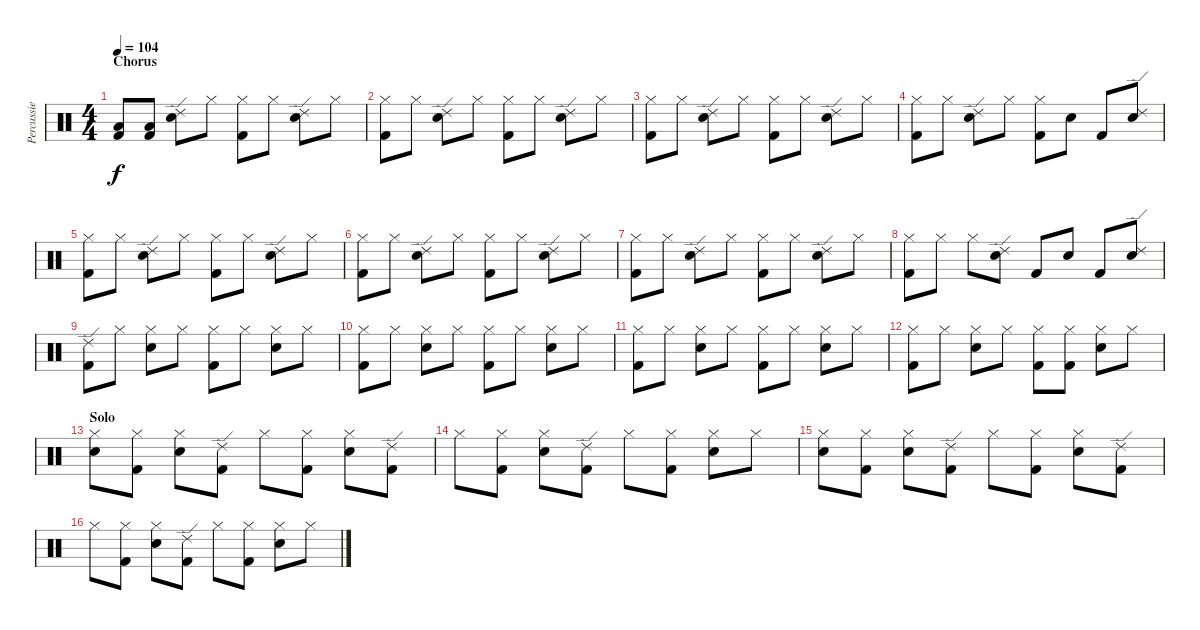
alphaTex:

\track ("Percussie" "Percussie") {instrument percussion}
\staff {score}
\articulation defaults
\ts (4 4)
\section ("" "Chorus")
\tempo 104
\clef neutral
\ks c
("Kick (hit) 2" "Low Floor Tom (hit)").8{dy f} ("Kick (hit) 2" "Low Floor Tom (hit)").8 ("Snare (hit) 2" "Ride (edge) 2").8 "Hi-Hat (closed)".8 ("Hi-Hat (closed)" "Kick (hit) 2").8 "Hi-Hat (closed)".8 ("Snare (hit) 2" "Ride (edge) 2").8 "Hi-Hat (closed)".8 |
("Hi-Hat (closed)" "Kick (hit) 2").8 "Hi-Hat (closed)".8 ("Snare (hit) 2" "Ride (edge) 2").8 "Hi-Hat (closed)".8 ("Hi-Hat (closed)" "Kick (hit) 2").8 "Hi-Hat (closed)".8 ("Snare (hit) 2" "Ride (edge) 2").8 "Hi-Hat (closed)".8 |
("Hi-Hat (closed)" "Kick (hit) 2").8 "Hi-Hat (closed)".8 ("Snare (hit) 2" "Ride (edge) 2").8 "Hi-Hat (closed)".8 ("Hi-Hat (closed)" "Kick (hit) 2").8 "Hi-Hat (closed)".8 ("Snare (hit) 2" "Ride (edge) 2").8 "Hi-Hat (closed)".8 |
("Hi-Hat (closed)" "Kick (hit) 2").8 "Hi-Hat (closed)".8 ("Snare (hit) 2" "Ride (edge) 2").8 "Hi-Hat (closed)".8 ("Hi-Hat (closed)" "Kick (hit) 2").8 "Snare (hit) 2".8 "Kick (hit) 2".8 ("Snare (hit) 2" "Ride (edge) 2").8 |
("Hi-Hat (closed)" "Kick (hit) 2").8 "Hi-Hat (closed)".8 ("Snare (hit) 2" "Ride (edge) 2").8 "Hi-Hat (closed)".8 ("Hi-Hat (closed)" "Kick (hit) 2").8 "Hi-Hat (closed)".8 ("Snare (hit) 2" "Ride (edge) 2").8 "Hi-Hat (closed)".8 |
("Hi-Hat (closed)" "Kick (hit) 2").8 "Hi-Hat (closed)".8 ("Snare (hit) 2" "Ride (edge) 2").8 "Hi-Hat (closed)".8 ("Hi-Hat (closed)" "Kick (hit) 2").8 "Hi-Hat (closed)".8 ("Snare (hit) 2" "Ride (edge) 2").8 "Hi-Hat (closed)".8 |
("Hi-Hat (closed)" "Kick (hit) 2").8 "Hi-Hat (closed)".8 ("Snare (hit) 2" "Ride (edge) 2").8 "Hi-Hat (closed)".8 ("Hi-Hat (closed)" "Kick (hit) 2").8 "Hi-Hat (closed)".8 ("Snare (hit) 2" "Ride (edge) 2").8 "Hi-Hat (closed)".8 |
("Hi-Hat (closed)" "Kick (hit) 2").8 "Hi-Hat (closed)".8 "Hi-Hat (closed)".8 ("Snare (hit) 2" "Ride (edge) 2").8 "Kick (hit) 2".8 "Snare (hit) 2".8 "Kick (hit) 2".8 ("Snare (hit) 2" "Ride (edge) 2").8 |
("Kick (hit) 2" "Ride (edge) 2").8 "Hi-Hat (closed)".8 ("Hi-Hat (closed)" "Snare (hit) 2").8 "Hi-Hat (closed)".8 ("Hi-Hat (closed)" "Kick (hit) 2").8 "Hi-Hat (closed)".8 ("Hi-Hat (closed)" "Snare (hit) 2").8 "Hi-Hat (closed)".8 |
("Hi-Hat (closed)" "Kick (hit) 2").8 "Hi-Hat (closed)".8 ("Hi-Hat (closed)" "Snare (hit) 2").8 "Hi-Hat (closed)".8 ("Hi-Hat (closed)" "Kick (hit) 2").8 "Hi-Hat (closed)".8 ("Hi-Hat (closed)" "Snare (hit) 2").8 "Hi-Hat (closed)".8 |
("Hi-Hat (closed)" "Kick (hit) 2").8 "Hi-Hat (closed)".8 ("Hi-Hat (closed)" "Snare (hit) 2").8 "Hi-Hat (closed)".8 ("Hi-Hat (closed)" "Kick (hit) 2").8 "Hi-Hat (closed)".8 ("Hi-Hat (closed)" "Snare (hit) 2").8 "Hi-Hat (closed)".8 |
("Hi-Hat (closed)" "Kick (hit) 2").8 "Hi-Hat (closed)".8 ("Hi-Hat (closed)" "Snare (hit) 2").8 "Hi-Hat (closed)".8 ("Hi-Hat (closed)" "Kick (hit) 2").8 ("Hi-Hat (closed)" "Kick (hit) 2").8 ("Hi-Hat (closed)" "Snare (hit) 2").8 "Hi-Hat (closed)".8 |
\section ("" "Solo")
("Hi-Hat (closed)" "Snare (hit) 2").8 ("Hi-Hat (closed)" "Kick (hit) 2").8 ("Hi-Hat (closed)" "Snare (hit) 2").8 ("Kick (hit) 2" "Ride (edge) 2").8 "Hi-Hat (closed)".8 ("Hi-Hat (closed)" "Kick (hit) 2").8 ("Hi-Hat (closed)" "Snare (hit) 2").8 ("Kick (hit) 2" "Ride (edge) 2").8 |
"Hi-Hat (closed)".8 ("Hi-Hat (closed)" "Kick (hit) 2").8 ("Hi-Hat (closed)" "Snare (hit) 2").8 ("Kick (hit) 2" "Ride (edge) 2").8 "Hi-Hat (closed)".8 ("Hi-Hat (closed)" "Kick (hit) 2").8 ("Hi-Hat (closed)" "Snare (hit) 2").8 "Hi-Hat (closed)".8 |
("Hi-Hat (closed)" "Snare (hit) 2").8 ("Hi-Hat (closed)" "Kick (hit) 2").8 ("Hi-Hat (closed)" "Snare (hit) 2").8 ("Kick (hit) 2" "Ride (edge) 2").8 "Hi-Hat (closed)".8 ("Hi-Hat (closed)" "Kick (hit) 2").8 ("Hi-Hat (closed)" "Snare (hit) 2").8 ("Kick (hit) 2" "Ride (edge) 2").8 |
"Hi-Hat (closed)".8 ("Hi-Hat (closed)" "Kick (hit) 2").8 ("Hi-Hat (closed)" "Snare (hit) 2").8 ("Kick (hit) 2" "Ride (edge) 2").8 "Hi-Hat (closed)".8 ("Hi-Hat (closed)" "Kick (hit) 2").8 ("Hi-Hat (closed)" "Snare (hit) 2").8 "Hi-Hat (closed)".8
